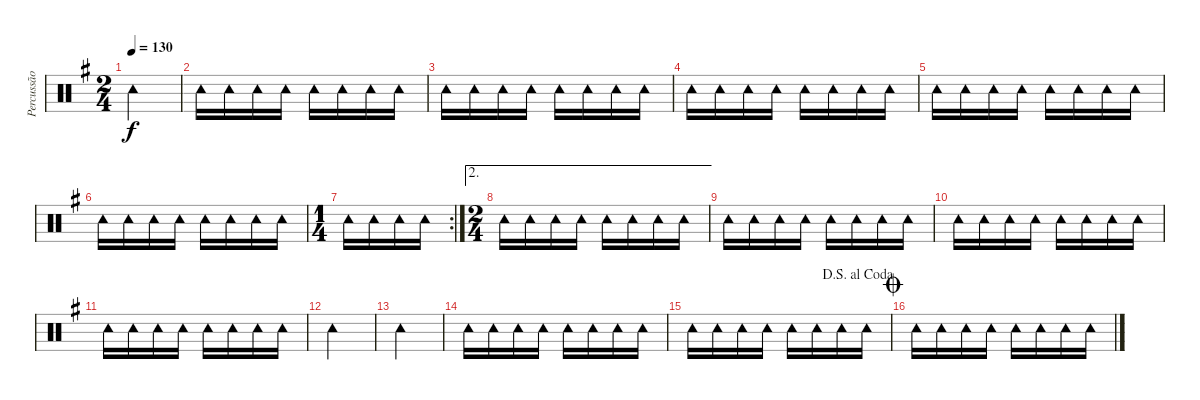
\track ("Percussão" "Percussão") {instrument percussion}
\staff {score}
\articulation defaults
\ts (2 4)
\tempo 130
\clef neutral
\ks g "Tambourine (hit)".2{dy f}
|
"Tambourine (hit)".16 "Tambourine (hit)".16 "Tambourine (hit)".16 "Tambourine (hit)".16 "Tambourine (hit)".16 "Tambourine (hit)".16 "Tambourine (hit)".16 "Tambourine (hit)".16 |
"Tambourine (hit)".16 "Tambourine (hit)".16 "Tambourine (hit)".16 "Tambourine (hit)".16 "Tambourine (hit)".16 "Tambourine (hit)".16 "Tambourine (hit)".16 "Tambourine (hit)".16 |
"Tambourine (hit)".16 "Tambourine (hit)".16 "Tambourine (hit)".16 "Tambourine (hit)".16 "Tambourine (hit)".16 "Tambourine (hit)".16 "Tambourine (hit)".16 "Tambourine (hit)".16 |
"Tambourine (hit)".16 "Tambourine (hit)".16 "Tambourine (hit)".16 "Tambourine (hit)".16 "Tambourine (hit)".16 "Tambourine (hit)".16 "Tambourine (hit)".16 "Tambourine (hit)".16 |
"Tambourine (hit)".16 "Tambourine (hit)".16 "Tambourine (hit)".16 "Tambourine (hit)".16 "Tambourine (hit)".16 "Tambourine (hit)".16 "Tambourine (hit)".16 "Tambourine (hit)".16 |
\rc 2
\ts (1 4)
"Tambourine (hit)".16 "Tambourine (hit)".16 "Tambourine (hit)".16 "Tambourine (hit)".16 |
\ae 2
\ts (2 4)
"Tambourine (hit)".16 "Tambourine (hit)".16 "Tambourine (hit)".16 "Tambourine (hit)".16 "Tambourine (hit)".16 "Tambourine (hit)".16 "Tambourine (hit)".16 "Tambourine (hit)".16 |
"Tambourine (hit)".16 "Tambourine (hit)".16 "Tambourine (hit)".16 "Tambourine (hit)".16 "Tambourine (hit)".16 "Tambourine (hit)".16 "Tambourine (hit)".16 "Tambourine (hit)".16 |
"Tambourine (hit)".16 "Tambourine (hit)".16 "Tambourine (hit)".16 "Tambourine (hit)".16 "Tambourine (hit)".16 "Tambourine (hit)".16 "Tambourine (hit)".16 "Tambourine (hit)".16 |
"Tambourine (hit)".16 "Tambourine (hit)".16 "Tambourine (hit)".16 "Tambourine (hit)".16 "Tambourine (hit)".16 "Tambourine (hit)".16 "Tambourine (hit)".16 "Tambourine (hit)".16 |
"Tambourine (hit)".2 |
"Tambourine (hit)".2 |
"Tambourine (hit)".16 "Tambourine (hit)".16 "Tambourine (hit)".16 "Tambourine (hit)".16 "Tambourine (hit)".16 "Tambourine (hit)".16 "Tambourine (hit)".16 "Tambourine (hit)".16 |
\jump dalsegnoalcoda "Tambourine (hit)".16 "Tambourine (hit)".16 "Tambourine (hit)".16 "Tambourine (hit)".16 "Tambourine (hit)".16 "Tambourine (hit)".16 "Tambourine (hit)".16 "Tambourine (hit)".16
|
\jump coda "Tambourine (hit)".16 "Tambourine (hit)".16 "Tambourine (hit)".16 "Tambourine (hit)".16 "Tambourine (hit)".16 "Tambourine (hit)".16 "Tambourine (hit)".16 "Tambourine (hit)".16
